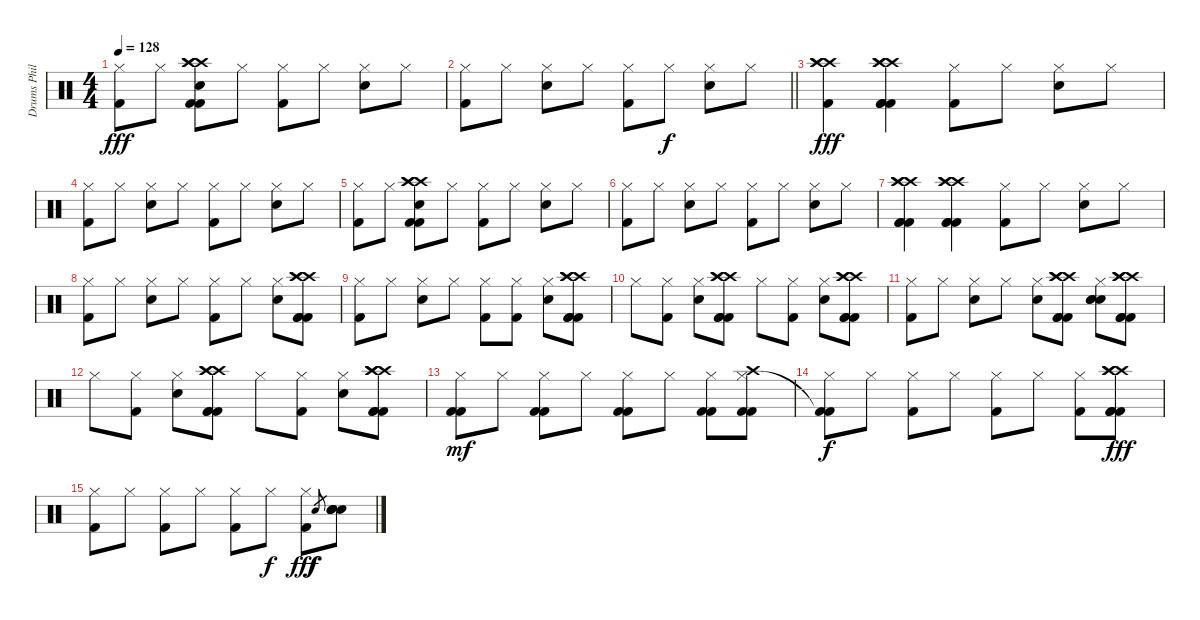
\track ("Drums Phil Rudd" "Drums Phil") {instrument percussion}
\staff {score}
\articulation defaults
\ts (4 4)
\tempo 128
\clef neutral
\ks c
("Hi-Hat (closed)" "Kick (hit) 2").8{dy fff} "Hi-Hat (closed)".8 ("Crash high (hit)" "Crash high (hit)" "Crash high (hit)" "Electric Snare (hit)" "Kick (hit) 2" "Kick (hit) 2").8 "Hi-Hat (closed)".8 ("Hi-Hat (closed)" "Kick (hit) 2").8 "Hi-Hat (closed)".8 ("Hi-Hat (closed)" "Electric Snare (hit)").8 "Hi-Hat (closed)".8 |
\barLineRight lightlight
("Hi-Hat (closed)" "Kick (hit) 2").8 "Hi-Hat (closed)".8 ("Hi-Hat (closed)" "Electric Snare (hit)").8 "Hi-Hat (closed)".8 ("Hi-Hat (closed)" "Kick (hit) 2").8 "Hi-Hat (closed)".8{dy f} ("Hi-Hat (closed)" "Electric Snare (hit)").8 "Hi-Hat (closed)".8 |
("Crash high (hit)" "Crash high (hit)" "Crash high (hit)" "Kick (hit) 2").4{dy fff} ("Crash high (hit)" "Crash high (hit)" "Crash high (hit)" "Kick (hit) 2" "Kick (hit) 2" "Kick (hit) 2").4 ("Hi-Hat (closed)" "Kick (hit) 2").8 "Hi-Hat (closed)".8 ("Hi-Hat (closed)" "Electric Snare (hit)").8 "Hi-Hat (closed)".8 |
("Hi-Hat (closed)" "Kick (hit) 2").8 "Hi-Hat (closed)".8 ("Hi-Hat (closed)" "Electric Snare (hit)").8 "Hi-Hat (closed)".8 ("Hi-Hat (closed)" "Kick (hit) 2").8 "Hi-Hat (closed)".8 ("Hi-Hat (closed)" "Electric Snare (hit)").8 "Hi-Hat (closed)".8 |
("Hi-Hat (closed)" "Kick (hit) 2").8 "Hi-Hat (closed)".8 ("Crash high (hit)" "Crash high (hit)" "Crash high (hit)" "Electric Snare (hit)" "Kick (hit) 2" "Kick (hit) 2").8 "Hi-Hat (closed)".8 ("Hi-Hat (closed)" "Kick (hit) 2").8 "Hi-Hat (closed)".8 ("Hi-Hat (closed)" "Electric Snare (hit)").8 "Hi-Hat (closed)".8 |
("Hi-Hat (closed)" "Kick (hit) 2").8 "Hi-Hat (closed)".8 ("Hi-Hat (closed)" "Electric Snare (hit)").8 "Hi-Hat (closed)".8 ("Hi-Hat (closed)" "Kick (hit) 2").8 "Hi-Hat (closed)".8 ("Hi-Hat (closed)" "Electric Snare (hit)").8 "Hi-Hat (closed)".8 |
("Crash high (hit)" "Crash high (hit)" "Crash high (hit)" "Kick (hit) 2" "Kick (hit) 2" "Kick (hit) 2").4 ("Crash high (hit)" "Crash high (hit)" "Crash high (hit)" "Kick (hit) 2" "Kick (hit) 2" "Kick (hit) 2").4 ("Hi-Hat (closed)" "Kick (hit) 2").8 "Hi-Hat (closed)".8 ("Hi-Hat (closed)" "Electric Snare (hit)").8 "Hi-Hat (closed)".8 |
("Hi-Hat (closed)" "Kick (hit) 2").8 "Hi-Hat (closed)".8 ("Hi-Hat (closed)" "Electric Snare (hit)").8 "Hi-Hat (closed)".8 ("Hi-Hat (closed)" "Kick (hit) 2").8 "Hi-Hat (closed)".8 ("Hi-Hat (closed)" "Electric Snare (hit)").8 ("Crash high (hit)" "Crash high (hit)" "Crash high (hit)" "Kick (hit) 2" "Kick (hit) 2" "Kick (hit) 2").8 |
("Hi-Hat (closed)" "Kick (hit) 2").8 "Hi-Hat (closed)".8 ("Hi-Hat (closed)" "Electric Snare (hit)").8 "Hi-Hat (closed)".8 ("Hi-Hat (closed)" "Kick (hit) 2").8 ("Hi-Hat (closed)" "Kick (hit) 2").8 ("Hi-Hat (closed)" "Electric Snare (hit)").8 ("Crash high (hit)" "Crash high (hit)" "Crash high (hit)" "Kick (hit) 2" "Kick (hit) 2" "Kick (hit) 2").8 |
"Hi-Hat (closed)".8 ("Hi-Hat (closed)" "Kick (hit) 2").8 ("Hi-Hat (closed)" "Electric Snare (hit)").8 ("Crash high (hit)" "Crash high (hit)" "Crash high (hit)" "Kick (hit) 2" "Kick (hit) 2" "Kick (hit) 2").8 "Hi-Hat (closed)".8 ("Hi-Hat (closed)" "Kick (hit) 2").8 ("Hi-Hat (closed)" "Electric Snare (hit)").8 ("Crash high (hit)" "Crash high (hit)" "Crash high (hit)" "Kick (hit) 2" "Kick (hit) 2" "Kick (hit) 2").8 |
("Hi-Hat (closed)" "Kick (hit) 2").8 "Hi-Hat (closed)".8 ("Hi-Hat (closed)" "Electric Snare (hit)").8 "Hi-Hat (closed)".8 ("Hi-Hat (closed)" "Electric Snare (hit)").8 ("Crash high (hit)" "Crash high (hit)" "Crash high (hit)" "Kick (hit) 2" "Kick (hit) 2" "Kick (hit) 2").8 ("Hi-Hat (closed)" "Electric Snare (hit)" "Electric Snare (hit)" "Electric Snare (hit)").8 ("Crash high (hit)" "Crash high (hit)" "Crash high (hit)" "Kick (hit) 2" "Kick (hit) 2" "Kick (hit) 2").8 |
"Hi-Hat (closed)".8 ("Hi-Hat (closed)" "Kick (hit) 2").8 ("Hi-Hat (closed)" "Electric Snare (hit)").8 ("Crash high (hit)" "Crash high (hit)" "Crash high (hit)" "Kick (hit) 2" "Kick (hit) 2" "Kick (hit) 2").8 "Hi-Hat (closed)".8 ("Hi-Hat (closed)" "Kick (hit) 2").8 ("Hi-Hat (closed)" "Electric Snare (hit)").8 ("Crash high (hit)" "Crash high (hit)" "Crash high (hit)" "Kick (hit) 2" "Kick (hit) 2" "Kick (hit) 2").8 |
("Hi-Hat (closed)" "Kick (hit) 2" "Kick (hit) 2").8{dy mf} "Hi-Hat (closed)".8 ("Hi-Hat (closed)" "Kick (hit) 2" "Kick (hit) 2").8 "Hi-Hat (closed)".8 ("Hi-Hat (closed)" "Kick (hit) 2" "Kick (hit) 2").8 "Hi-Hat (closed)".8 ("Hi-Hat (closed)" "Kick (hit) 2" "Kick (hit) 2").8 ("Crash high (hit)" "Hi-Hat (closed)" "Kick (hit) 2" "Kick (hit) 2").8 |
("Hi-Hat (closed)" "Kick (hit) 2"{t} "Kick (hit) 2").8{dy f} "Hi-Hat (closed)".8 ("Hi-Hat (closed)" "Kick (hit) 2").8 "Hi-Hat (closed)".8 ("Hi-Hat (closed)" "Kick (hit) 2").8 "Hi-Hat (closed)".8 ("Hi-Hat (closed)" "Kick (hit) 2").8 ("Crash high (hit)" "Crash high (hit)" "Crash high (hit)" "Kick (hit) 2" "Kick (hit) 2" "Kick (hit) 2").8{dy fff} |
("Hi-Hat (closed)" "Kick (hit) 2").8 "Hi-Hat (closed)".8 ("Hi-Hat (closed)" "Kick (hit) 2").8 "Hi-Hat (closed)".8 ("Hi-Hat (closed)" "Kick (hit) 2").8 "Hi-Hat (closed)".8{dy f} ("Hi-Hat (closed)" "Kick (hit) 2").8{dy fff} "Electric Snare (hit)".8{gr dy f} ("Electric Snare (hit)" "Electric Snare (hit)" "Electric Snare (hit)" "Electric Snare (hit)").8
